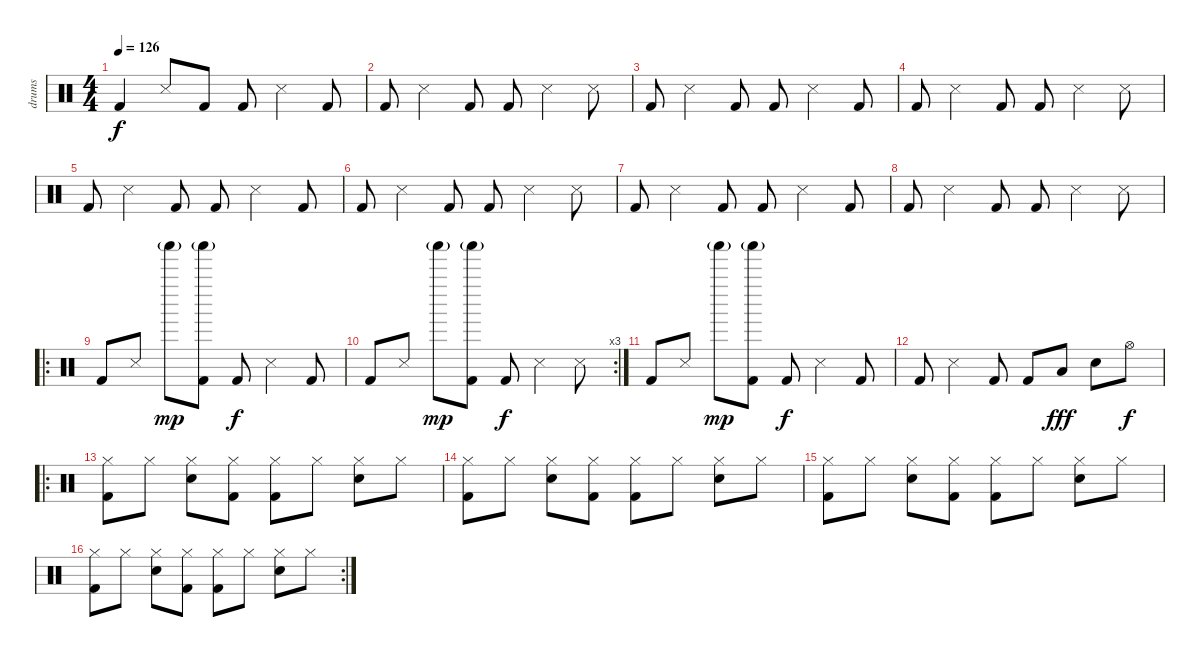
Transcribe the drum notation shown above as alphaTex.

\track ("drums" "drums") {instrument percussion}
\staff {score}
\articulation defaults
\ts (4 4)
\tempo 126
\clef neutral
\ks c "Kick (hit) 2".4{dy f} "Snare (side stick) 3".8 "Kick (hit) 2".8 "Kick (hit) 2".8 "Snare (side stick) 3".4 "Kick (hit) 2".8
|
"Kick (hit) 2".8 "Snare (side stick) 3".4 "Kick (hit) 2".8 "Kick (hit) 2".8 "Snare (side stick) 3".4 "Snare (side stick) 3".8 |
"Kick (hit) 2".8 "Snare (side stick) 3".4 "Kick (hit) 2".8 "Kick (hit) 2".8 "Snare (side stick) 3".4 "Kick (hit) 2".8 |
"Kick (hit) 2".8 "Snare (side stick) 3".4 "Kick (hit) 2".8 "Kick (hit) 2".8 "Snare (side stick) 3".4 "Snare (side stick) 3".8 |
"Kick (hit) 2".8 "Snare (side stick) 3".4 "Kick (hit) 2".8 "Kick (hit) 2".8 "Snare (side stick) 3".4 "Kick (hit) 2".8 |
"Kick (hit) 2".8 "Snare (side stick) 3".4 "Kick (hit) 2".8 "Kick (hit) 2".8 "Snare (side stick) 3".4 "Snare (side stick) 3".8 |
"Kick (hit) 2".8 "Snare (side stick) 3".4 "Kick (hit) 2".8 "Kick (hit) 2".8 "Snare (side stick) 3".4 "Kick (hit) 2".8 |
"Kick (hit) 2".8 "Snare (side stick) 3".4 "Kick (hit) 2".8 "Kick (hit) 2".8 "Snare (side stick) 3".4 "Snare (side stick) 3".8 |
\ro "Kick (hit) 2".8 "Snare (side stick) 3".8 "Shaker (hit)"{g}.8{dy mp}
("Shaker (hit)"{g} "Kick (hit) 2").8 "Kick (hit) 2".8{dy f} "Snare (side stick) 3".4 "Kick (hit) 2".8 |
\rc 3 "Kick (hit) 2".8 "Snare (side stick) 3".8 "Shaker (hit)"{g}.8{dy mp}
("Shaker (hit)"{g} "Kick (hit) 2").8 "Kick (hit) 2".8{dy f} "Snare (side stick) 3".4 "Snare (side stick) 3".8 |
"Kick (hit) 2".8 "Snare (side stick) 3".8 "Shaker (hit)"{g}.8{dy mp} ("Shaker (hit)"{g} "Kick (hit) 2").8 "Kick (hit) 2".8{dy f} "Snare (side stick) 3".4 "Kick (hit) 2".8 |
"Kick (hit) 2".8 "Snare (side stick) 3".4 "Kick (hit) 2".8 "Kick (hit) 2".8 "Low Tom (hit)".8{dy fff} "Snare (hit) 2".8 "Hi-Hat (open)".8{dy f} |
\ro
("Hi-Hat (closed)" "Kick (hit) 2").8 "Hi-Hat (closed)".8 ("Hi-Hat (closed)" "Snare (hit) 2").8 ("Hi-Hat (closed)" "Kick (hit) 2").8 ("Hi-Hat (closed)" "Kick (hit) 2").8 "Hi-Hat (closed)".8 ("Hi-Hat (closed)" "Snare (hit) 2").8 "Hi-Hat (closed)".8 |
("Hi-Hat (closed)" "Kick (hit) 2").8 "Hi-Hat (closed)".8 ("Hi-Hat (closed)" "Snare (hit) 2").8 ("Hi-Hat (closed)" "Kick (hit) 2").8 ("Hi-Hat (closed)" "Kick (hit) 2").8 "Hi-Hat (closed)".8 ("Hi-Hat (closed)" "Snare (hit) 2").8 "Hi-Hat (closed)".8 |
("Hi-Hat (closed)" "Kick (hit) 2").8 "Hi-Hat (closed)".8 ("Hi-Hat (closed)" "Snare (hit) 2").8 ("Hi-Hat (closed)" "Kick (hit) 2").8 ("Hi-Hat (closed)" "Kick (hit) 2").8 "Hi-Hat (closed)".8 ("Hi-Hat (closed)" "Snare (hit) 2").8 "Hi-Hat (closed)".8 |
\rc 2
("Hi-Hat (closed)" "Kick (hit) 2").8 "Hi-Hat (closed)".8 ("Hi-Hat (closed)" "Snare (hit) 2").8 ("Hi-Hat (closed)" "Kick (hit) 2").8 ("Hi-Hat (closed)" "Kick (hit) 2").8 "Hi-Hat (closed)".8 ("Hi-Hat (closed)" "Snare (hit) 2").8 "Hi-Hat (closed)".8
